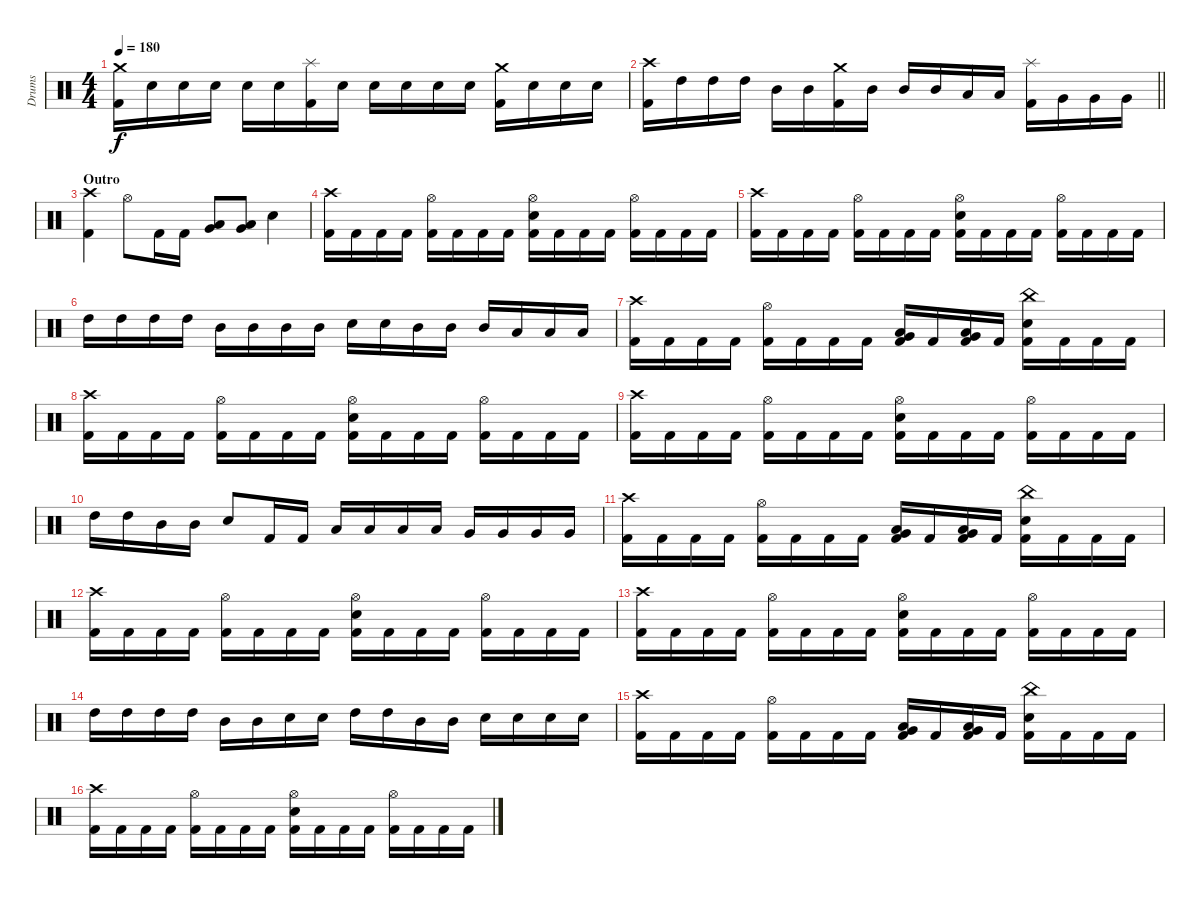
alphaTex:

\track ("Drums" "Drums") {instrument percussion}
\staff {score}
\articulation defaults
\ts (4 4)
\tempo 180
\clef neutral
\ks c
("Crash medium (hit)" "Kick (hit) 2").16{dy f} "Electric Snare (hit)".16 "Electric Snare (hit)".16 "Electric Snare (hit)".16 "Electric Snare (hit)".16 "Electric Snare (hit)".16 ("Splash (hit)" "Kick (hit) 2").16 "Electric Snare (hit)".16 "Electric Snare (hit)".16 "Electric Snare (hit)".16 "Electric Snare (hit)".16 "Electric Snare (hit)".16 ("Crash medium (hit)" "Kick (hit) 2").16 "Electric Snare (hit)".16 "Electric Snare (hit)".16 "Electric Snare (hit)".16 |
\barLineRight lightlight
("Crash high (hit)" "Kick (hit) 2").16 "High Tom (hit)".16 "High Tom (hit)".16 "High Tom (hit)".16 "Mid Tom (hit)".16 "Mid Tom (hit)".16 ("Crash medium (hit)" "Kick (hit) 2").16 "Mid Tom (hit)".16 "Mid Tom (hit)".16 "Mid Tom (hit)".16 "Low Tom (hit)".16 "Low Tom (hit)".16 ("Splash (hit)" "Kick (hit) 2").16 "Very Low Tom (hit)".16 "Very Low Tom (hit)".16 "Very Low Tom (hit)".16 |
\section ("" "Outro")
("Crash high (hit)" "Kick (hit) 2").4 "Hi-Hat (open)".8 "Kick (hit) 2".16 "Kick (hit) 2".16 ("Low Tom (hit)" "Very Low Tom (hit)").8 ("Low Tom (hit)" "Very Low Tom (hit)").8 "Electric Snare (hit)".4 |
("Crash high (hit)" "Kick (hit) 2").16 "Kick (hit) 2".16 "Kick (hit) 2".16 "Kick (hit) 2".16 ("Hi-Hat (open)" "Kick (hit) 2").16 "Kick (hit) 2".16 "Kick (hit) 2".16 "Kick (hit) 2".16 ("Hi-Hat (open)" "Electric Snare (hit)" "Kick (hit) 2").16 "Kick (hit) 2".16 "Kick (hit) 2".16 "Kick (hit) 2".16 ("Hi-Hat (open)" "Kick (hit) 2").16 "Kick (hit) 2".16 "Kick (hit) 2".16 "Kick (hit) 2".16 |
("Crash high (hit)" "Kick (hit) 2").16 "Kick (hit) 2".16 "Kick (hit) 2".16 "Kick (hit) 2".16 ("Hi-Hat (open)" "Kick (hit) 2").16 "Kick (hit) 2".16 "Kick (hit) 2".16 "Kick (hit) 2".16 ("Hi-Hat (open)" "Electric Snare (hit)" "Kick (hit) 2").16 "Kick (hit) 2".16 "Kick (hit) 2".16 "Kick (hit) 2".16 ("Hi-Hat (open)" "Kick (hit) 2").16 "Kick (hit) 2".16 "Kick (hit) 2".16 "Kick (hit) 2".16 |
"High Tom (hit)".16 "High Tom (hit)".16 "High Tom (hit)".16 "High Tom (hit)".16 "Mid Tom (hit)".16 "Mid Tom (hit)".16 "Mid Tom (hit)".16 "Mid Tom (hit)".16 "Electric Snare (hit)".16 "Electric Snare (hit)".16 "Mid Tom (hit)".16 "Mid Tom (hit)".16 "Mid Tom (hit)".16 "Low Tom (hit)".16 "Low Tom (hit)".16 "Low Tom (hit)".16 |
("Crash high (hit)" "Kick (hit) 2").16 "Kick (hit) 2".16 "Kick (hit) 2".16 "Kick (hit) 2".16 ("Hi-Hat (open)" "Kick (hit) 2").16 "Kick (hit) 2".16 "Kick (hit) 2".16 "Kick (hit) 2".16 ("Low Tom (hit)" "Very Low Tom (hit)" "Kick (hit) 2").16 "Kick (hit) 2".16 ("Low Tom (hit)" "Very Low Tom (hit)" "Kick (hit) 2").16 "Kick (hit) 2".16 ("China (hit)" "Electric Snare (hit)" "Kick (hit) 2").16 "Kick (hit) 2".16 "Kick (hit) 2".16 "Kick (hit) 2".16 |
("Crash high (hit)" "Kick (hit) 2").16 "Kick (hit) 2".16 "Kick (hit) 2".16 "Kick (hit) 2".16 ("Hi-Hat (open)" "Kick (hit) 2").16 "Kick (hit) 2".16 "Kick (hit) 2".16 "Kick (hit) 2".16 ("Hi-Hat (open)" "Electric Snare (hit)" "Kick (hit) 2").16 "Kick (hit) 2".16 "Kick (hit) 2".16 "Kick (hit) 2".16 ("Hi-Hat (open)" "Kick (hit) 2").16 "Kick (hit) 2".16 "Kick (hit) 2".16 "Kick (hit) 2".16 |
("Crash high (hit)" "Kick (hit) 2").16 "Kick (hit) 2".16 "Kick (hit) 2".16 "Kick (hit) 2".16 ("Hi-Hat (open)" "Kick (hit) 2").16 "Kick (hit) 2".16 "Kick (hit) 2".16 "Kick (hit) 2".16 ("Hi-Hat (open)" "Electric Snare (hit)" "Kick (hit) 2").16 "Kick (hit) 2".16 "Kick (hit) 2".16 "Kick (hit) 2".16 ("Hi-Hat (open)" "Kick (hit) 2").16 "Kick (hit) 2".16 "Kick (hit) 2".16 "Kick (hit) 2".16 |
"High Tom (hit)".16 "High Tom (hit)".16 "Mid Tom (hit)".16 "Mid Tom (hit)".16 "Electric Snare (hit)".8 "Kick (hit) 2".16 "Kick (hit) 2".16 "Low Tom (hit)".16 "Low Tom (hit)".16 "Low Tom (hit)".16 "Low Tom (hit)".16 "Very Low Tom (hit)".16 "Very Low Tom (hit)".16 "Very Low Tom (hit)".16 "Very Low Tom (hit)".16 |
("Crash high (hit)" "Kick (hit) 2").16 "Kick (hit) 2".16 "Kick (hit) 2".16 "Kick (hit) 2".16 ("Hi-Hat (open)" "Kick (hit) 2").16 "Kick (hit) 2".16 "Kick (hit) 2".16 "Kick (hit) 2".16 ("Low Tom (hit)" "Very Low Tom (hit)" "Kick (hit) 2").16 "Kick (hit) 2".16 ("Low Tom (hit)" "Very Low Tom (hit)" "Kick (hit) 2").16 "Kick (hit) 2".16 ("China (hit)" "Electric Snare (hit)" "Kick (hit) 2").16 "Kick (hit) 2".16 "Kick (hit) 2".16 "Kick (hit) 2".16 |
("Crash high (hit)" "Kick (hit) 2").16 "Kick (hit) 2".16 "Kick (hit) 2".16 "Kick (hit) 2".16 ("Hi-Hat (open)" "Kick (hit) 2").16 "Kick (hit) 2".16 "Kick (hit) 2".16 "Kick (hit) 2".16 ("Hi-Hat (open)" "Electric Snare (hit)" "Kick (hit) 2").16 "Kick (hit) 2".16 "Kick (hit) 2".16 "Kick (hit) 2".16 ("Hi-Hat (open)" "Kick (hit) 2").16 "Kick (hit) 2".16 "Kick (hit) 2".16 "Kick (hit) 2".16 |
("Crash high (hit)" "Kick (hit) 2").16 "Kick (hit) 2".16 "Kick (hit) 2".16 "Kick (hit) 2".16 ("Hi-Hat (open)" "Kick (hit) 2").16 "Kick (hit) 2".16 "Kick (hit) 2".16 "Kick (hit) 2".16 ("Hi-Hat (open)" "Electric Snare (hit)" "Kick (hit) 2").16 "Kick (hit) 2".16 "Kick (hit) 2".16 "Kick (hit) 2".16 ("Hi-Hat (open)" "Kick (hit) 2").16 "Kick (hit) 2".16 "Kick (hit) 2".16 "Kick (hit) 2".16 |
"High Tom (hit)".16 "High Tom (hit)".16 "High Tom (hit)".16 "High Tom (hit)".16 "Mid Tom (hit)".16 "Mid Tom (hit)".16 "Electric Snare (hit)".16 "Electric Snare (hit)".16 "High Tom (hit)".16 "High Tom (hit)".16 "Mid Tom (hit)".16 "Mid Tom (hit)".16 "Electric Snare (hit)".16 "Electric Snare (hit)".16 "Electric Snare (hit)".16 "Electric Snare (hit)".16 |
("Crash high (hit)" "Kick (hit) 2").16 "Kick (hit) 2".16 "Kick (hit) 2".16 "Kick (hit) 2".16 ("Hi-Hat (open)" "Kick (hit) 2").16 "Kick (hit) 2".16 "Kick (hit) 2".16 "Kick (hit) 2".16 ("Low Tom (hit)" "Very Low Tom (hit)" "Kick (hit) 2").16 "Kick (hit) 2".16 ("Low Tom (hit)" "Very Low Tom (hit)" "Kick (hit) 2").16 "Kick (hit) 2".16 ("China (hit)" "Electric Snare (hit)" "Kick (hit) 2").16 "Kick (hit) 2".16 "Kick (hit) 2".16 "Kick (hit) 2".16 |
("Crash high (hit)" "Kick (hit) 2").16 "Kick (hit) 2".16 "Kick (hit) 2".16 "Kick (hit) 2".16 ("Hi-Hat (open)" "Kick (hit) 2").16 "Kick (hit) 2".16 "Kick (hit) 2".16 "Kick (hit) 2".16 ("Hi-Hat (open)" "Electric Snare (hit)" "Kick (hit) 2").16 "Kick (hit) 2".16 "Kick (hit) 2".16 "Kick (hit) 2".16 ("Hi-Hat (open)" "Kick (hit) 2").16 "Kick (hit) 2".16 "Kick (hit) 2".16 "Kick (hit) 2".16
